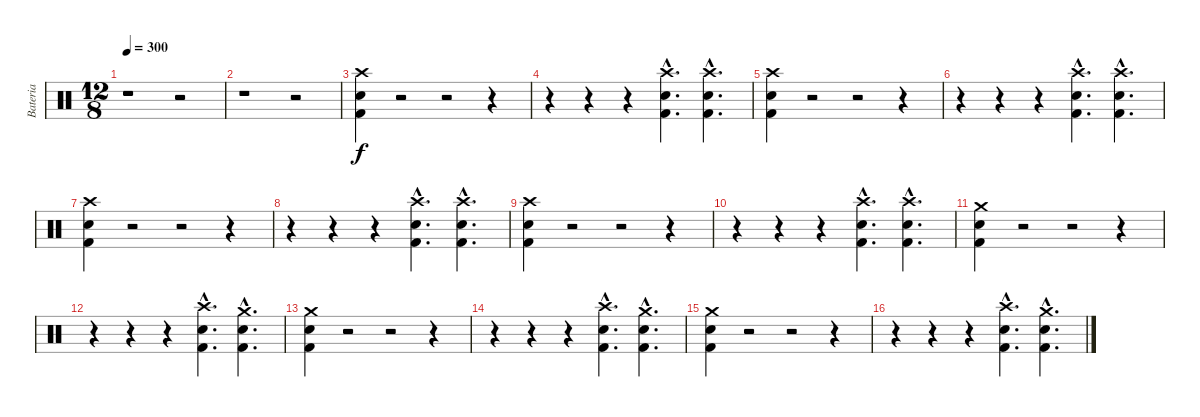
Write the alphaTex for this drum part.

\track ("Bateria" "Bateria") {instrument percussion}
\staff {score}
\articulation defaults
\ts (12 8)
\tempo 300
\clef neutral
\ks c
r.1{dy f} r.2 |
r.1 r.2 |
("Crash high (hit)" "Snare (hit) 2" "Kick (hit) 2").4 r.2 r.2 r.4 |
r.4 r.4 r.4 ("Crash high (hit)"{hac} "Snare (hit) 2"{hac} "Kick (hit) 2"{hac}).4{d} ("Crash high (hit)"{hac} "Snare (hit) 2"{hac} "Kick (hit) 2"{hac}).4{d} |
("Crash high (hit)" "Snare (hit) 2" "Kick (hit) 2").4 r.2 r.2 r.4 |
r.4 r.4 r.4 ("Crash high (hit)"{hac} "Snare (hit) 2"{hac} "Kick (hit) 2"{hac}).4{d} ("Crash high (hit)"{hac} "Snare (hit) 2"{hac} "Kick (hit) 2"{hac}).4{d} |
("Crash high (hit)" "Snare (hit) 2" "Kick (hit) 2").4 r.2 r.2 r.4 |
r.4 r.4 r.4 ("Crash high (hit)"{hac} "Snare (hit) 2"{hac} "Kick (hit) 2"{hac}).4{d} ("Crash high (hit)"{hac} "Snare (hit) 2"{hac} "Kick (hit) 2"{hac}).4{d} |
("Crash high (hit)" "Snare (hit) 2" "Kick (hit) 2").4 r.2 r.2 r.4 |
r.4 r.4 r.4 ("Crash high (hit)"{hac} "Snare (hit) 2"{hac} "Kick (hit) 2"{hac}).4{d} ("Crash high (hit)"{hac} "Snare (hit) 2"{hac} "Kick (hit) 2"{hac}).4{d} |
("Crash medium (hit)" "Snare (hit) 2" "Kick (hit) 2").4 r.2 r.2 r.4 |
r.4 r.4 r.4 ("Crash high (hit)"{hac} "Snare (hit) 2"{hac} "Kick (hit) 2"{hac}).4{d} ("Crash medium (hit)"{hac} "Snare (hit) 2"{hac} "Kick (hit) 2"{hac}).4{d} |
("Crash medium (hit)" "Snare (hit) 2" "Kick (hit) 2").4 r.2 r.2 r.4 |
r.4 r.4 r.4 ("Crash high (hit)"{hac} "Snare (hit) 2"{hac} "Kick (hit) 2"{hac}).4{d} ("Crash medium (hit)"{hac} "Snare (hit) 2"{hac} "Kick (hit) 2"{hac}).4{d} |
("Crash medium (hit)" "Snare (hit) 2" "Kick (hit) 2").4 r.2 r.2 r.4 |
r.4 r.4 r.4 ("Crash high (hit)"{hac} "Snare (hit) 2"{hac} "Kick (hit) 2"{hac}).4{d} ("Crash medium (hit)"{hac} "Snare (hit) 2"{hac} "Kick (hit) 2"{hac}).4{d}
